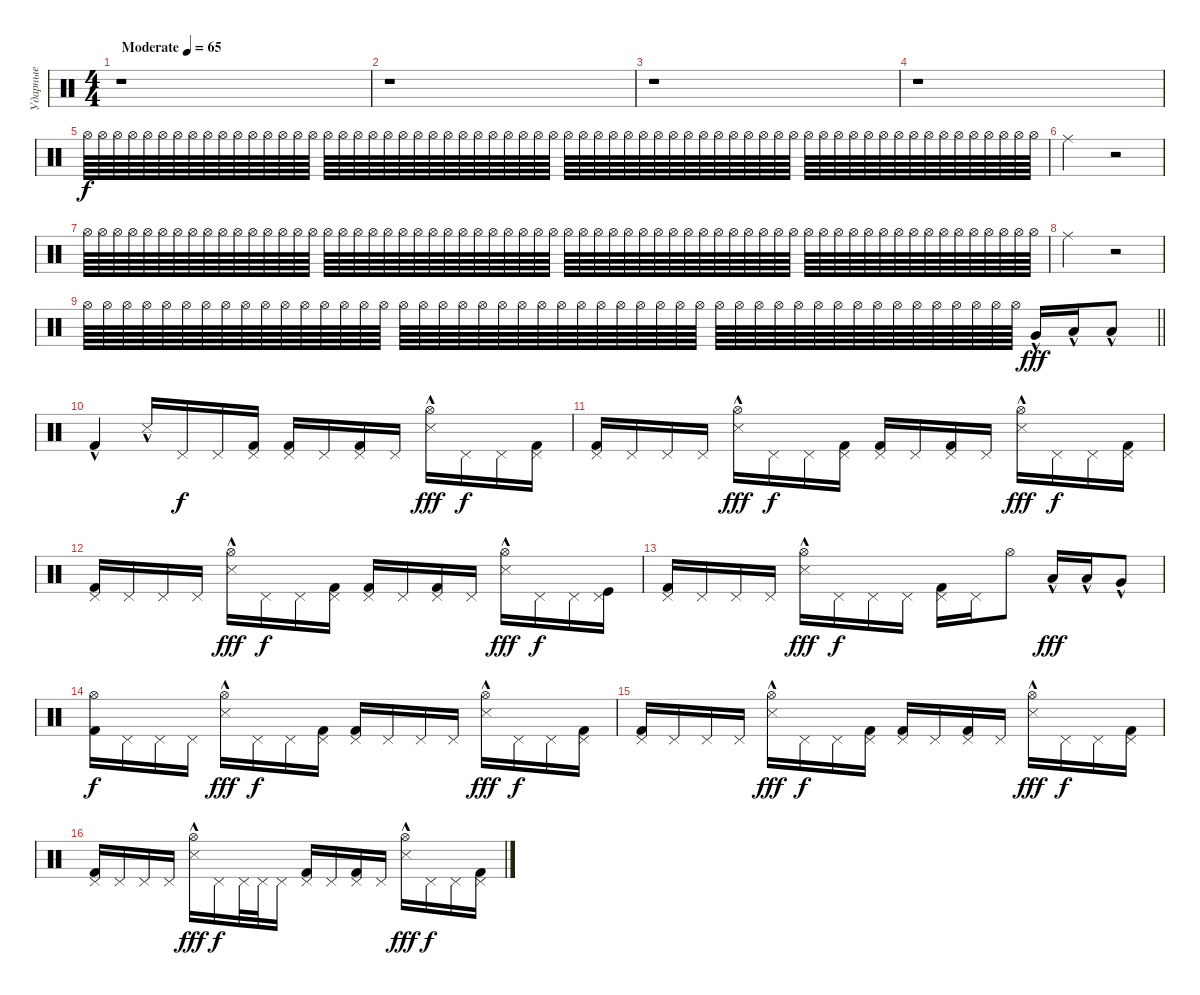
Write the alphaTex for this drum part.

\track ("Ударные" "Ударные") {instrument percussion}
\staff {score}
\articulation defaults
\ts (4 4)
\tempo (65 "Moderate")
\clef neutral
\ks c
r.1{dy f volume 4} |
r.1 |
r.1 |
r.1 |
"Hi-Hat (open)".64{volume 10} "Hi-Hat (open)".64 "Hi-Hat (open)".64 "Hi-Hat (open)".64 "Hi-Hat (open)".64 "Hi-Hat (open)".64 "Hi-Hat (open)".64 "Hi-Hat (open)".64 "Hi-Hat (open)".64 "Hi-Hat (open)".64 "Hi-Hat (open)".64 "Hi-Hat (open)".64 "Hi-Hat (open)".64 "Hi-Hat (open)".64 "Hi-Hat (open)".64 "Hi-Hat (open)".64 "Hi-Hat (open)".64 "Hi-Hat (open)".64 "Hi-Hat (open)".64 "Hi-Hat (open)".64 "Hi-Hat (open)".64 "Hi-Hat (open)".64 "Hi-Hat (open)".64 "Hi-Hat (open)".64 "Hi-Hat (open)".64 "Hi-Hat (open)".64 "Hi-Hat (open)".64 "Hi-Hat (open)".64 "Hi-Hat (open)".64 "Hi-Hat (open)".64 "Hi-Hat (open)".64 "Hi-Hat (open)".64 "Hi-Hat (open)".64{volume 5} "Hi-Hat (open)".64 "Hi-Hat (open)".64 "Hi-Hat (open)".64 "Hi-Hat (open)".64 "Hi-Hat (open)".64 "Hi-Hat (open)".64 "Hi-Hat (open)".64 "Hi-Hat (open)".64 "Hi-Hat (open)".64 "Hi-Hat (open)".64 "Hi-Hat (open)".64 "Hi-Hat (open)".64 "Hi-Hat (open)".64 "Hi-Hat (open)".64 "Hi-Hat (open)".64 "Hi-Hat (open)".64 "Hi-Hat (open)".64 "Hi-Hat (open)".64 "Hi-Hat (open)".64 "Hi-Hat (open)".64 "Hi-Hat (open)".64 "Hi-Hat (open)".64 "Hi-Hat (open)".64 "Hi-Hat (open)".64 "Hi-Hat (open)".64 "Hi-Hat (open)".64 "Hi-Hat (open)".64 "Hi-Hat (open)".64 "Hi-Hat (open)".64 "Hi-Hat (open)".64 "Hi-Hat (open)".64 |
"Ride (middle)".2{volume 11} r.2{volume 0} |
"Hi-Hat (open)".64{volume 10} "Hi-Hat (open)".64 "Hi-Hat (open)".64 "Hi-Hat (open)".64 "Hi-Hat (open)".64 "Hi-Hat (open)".64 "Hi-Hat (open)".64 "Hi-Hat (open)".64 "Hi-Hat (open)".64 "Hi-Hat (open)".64 "Hi-Hat (open)".64 "Hi-Hat (open)".64 "Hi-Hat (open)".64 "Hi-Hat (open)".64 "Hi-Hat (open)".64 "Hi-Hat (open)".64 "Hi-Hat (open)".64 "Hi-Hat (open)".64 "Hi-Hat (open)".64 "Hi-Hat (open)".64 "Hi-Hat (open)".64 "Hi-Hat (open)".64 "Hi-Hat (open)".64 "Hi-Hat (open)".64 "Hi-Hat (open)".64 "Hi-Hat (open)".64 "Hi-Hat (open)".64 "Hi-Hat (open)".64 "Hi-Hat (open)".64 "Hi-Hat (open)".64 "Hi-Hat (open)".64 "Hi-Hat (open)".64 "Hi-Hat (open)".64{volume 5} "Hi-Hat (open)".64 "Hi-Hat (open)".64 "Hi-Hat (open)".64 "Hi-Hat (open)".64 "Hi-Hat (open)".64 "Hi-Hat (open)".64 "Hi-Hat (open)".64 "Hi-Hat (open)".64 "Hi-Hat (open)".64 "Hi-Hat (open)".64 "Hi-Hat (open)".64 "Hi-Hat (open)".64 "Hi-Hat (open)".64 "Hi-Hat (open)".64 "Hi-Hat (open)".64 "Hi-Hat (open)".64 "Hi-Hat (open)".64 "Hi-Hat (open)".64 "Hi-Hat (open)".64 "Hi-Hat (open)".64 "Hi-Hat (open)".64 "Hi-Hat (open)".64 "Hi-Hat (open)".64 "Hi-Hat (open)".64 "Hi-Hat (open)".64 "Hi-Hat (open)".64 "Hi-Hat (open)".64 "Hi-Hat (open)".64 "Hi-Hat (open)".64 "Hi-Hat (open)".64 "Hi-Hat (open)".64 |
"Ride (middle)".2{volume 11} r.2{volume 0} |
\barLineRight lightlight "Hi-Hat (open)".64{volume 11} "Hi-Hat (open)".64 "Hi-Hat (open)".64 "Hi-Hat (open)".64 "Hi-Hat (open)".64 "Hi-Hat (open)".64 "Hi-Hat (open)".64 "Hi-Hat (open)".64 "Hi-Hat (open)".64 "Hi-Hat (open)".64 "Hi-Hat (open)".64 "Hi-Hat (open)".64 "Hi-Hat (open)".64 "Hi-Hat (open)".64 "Hi-Hat (open)".64 "Hi-Hat (open)".64 "Hi-Hat (open)".64 "Hi-Hat (open)".64 "Hi-Hat (open)".64 "Hi-Hat (open)".64 "Hi-Hat (open)".64 "Hi-Hat (open)".64 "Hi-Hat (open)".64 "Hi-Hat (open)".64 "Hi-Hat (open)".64 "Hi-Hat (open)".64 "Hi-Hat (open)".64 "Hi-Hat (open)".64 "Hi-Hat (open)".64 "Hi-Hat (open)".64 "Hi-Hat (open)".64 "Hi-Hat (open)".64 "Hi-Hat (open)".64 "Hi-Hat (open)".64 "Hi-Hat (open)".64 "Hi-Hat (open)".64 "Hi-Hat (open)".64 "Hi-Hat (open)".64 "Hi-Hat (open)".64 "Hi-Hat (open)".64 "Hi-Hat (open)".64 "Hi-Hat (open)".64 "Hi-Hat (open)".64 "Hi-Hat (open)".64 "Hi-Hat (open)".64 "Hi-Hat (open)".64 "Hi-Hat (open)".64 "Hi-Hat (open)".64 "Very Low Tom (hit)"{hac}.16{dy fff} "Low Floor Tom (hit)"{hac}.16 "Low Floor Tom (hit)"{hac}.8
|
"Kick (hit) 2"{hac}.4 "Snare (side stick) 3"{hac}.16 "Pedal Hi-Hat (hit)".16{dy f} "Pedal Hi-Hat (hit)".16 ("Kick (hit) 2" "Pedal Hi-Hat (hit)").16 ("Kick (hit) 2" "Pedal Hi-Hat (hit)").16 "Pedal Hi-Hat (hit)".16 ("Kick (hit) 2" "Pedal Hi-Hat (hit)").16 "Pedal Hi-Hat (hit)".16 ("Snare (side stick) 3"{hac} "Hi-Hat (open)").16{dy fff} "Pedal Hi-Hat (hit)".16{dy f} "Pedal Hi-Hat (hit)".16 ("Kick (hit) 2" "Pedal Hi-Hat (hit)").16 |
("Kick (hit) 2" "Pedal Hi-Hat (hit)").16 "Pedal Hi-Hat (hit)".16 "Pedal Hi-Hat (hit)".16 "Pedal Hi-Hat (hit)".16 ("Snare (side stick) 3"{hac} "Hi-Hat (open)").16{dy fff} "Pedal Hi-Hat (hit)".16{dy f} "Pedal Hi-Hat (hit)".16 ("Kick (hit) 2" "Pedal Hi-Hat (hit)").16 ("Kick (hit) 2" "Pedal Hi-Hat (hit)").16 "Pedal Hi-Hat (hit)".16 ("Kick (hit) 2" "Pedal Hi-Hat (hit)").16 "Pedal Hi-Hat (hit)".16 ("Snare (side stick) 3"{hac} "Hi-Hat (open)").16{dy fff} "Pedal Hi-Hat (hit)".16{dy f} "Pedal Hi-Hat (hit)".16 ("Kick (hit) 2" "Pedal Hi-Hat (hit)").16 |
("Kick (hit) 2" "Pedal Hi-Hat (hit)").16 "Pedal Hi-Hat (hit)".16 "Pedal Hi-Hat (hit)".16 "Pedal Hi-Hat (hit)".16 ("Snare (side stick) 3"{hac} "Hi-Hat (open)").16{dy fff} "Pedal Hi-Hat (hit)".16{dy f} "Pedal Hi-Hat (hit)".16 ("Kick (hit) 2" "Pedal Hi-Hat (hit)").16 ("Kick (hit) 2" "Pedal Hi-Hat (hit)").16 "Pedal Hi-Hat (hit)".16 ("Kick (hit) 2" "Pedal Hi-Hat (hit)").16 "Pedal Hi-Hat (hit)".16 ("Snare (side stick) 3"{hac} "Hi-Hat (open)").16{dy fff} "Pedal Hi-Hat (hit)".16{dy f} "Pedal Hi-Hat (hit)".16 ("Kick (hit)" "Pedal Hi-Hat (hit)").16 |
("Kick (hit) 2" "Pedal Hi-Hat (hit)").16 "Pedal Hi-Hat (hit)".16 "Pedal Hi-Hat (hit)".16 "Pedal Hi-Hat (hit)".16 ("Snare (side stick) 3"{hac} "Hi-Hat (open)").16{dy fff} "Pedal Hi-Hat (hit)".16{dy f} "Pedal Hi-Hat (hit)".16 "Pedal Hi-Hat (hit)".16 ("Kick (hit) 2" "Pedal Hi-Hat (hit)").16 "Pedal Hi-Hat (hit)".16 "Hi-Hat (open)".8 "Low Tom (hit)"{hac}.16{dy fff} "Low Tom (hit)"{hac}.16 "Very Low Tom (hit)"{hac}.8 |
("Kick (hit) 2" "Hi-Hat (open)").16{dy f} "Pedal Hi-Hat (hit)".16 "Pedal Hi-Hat (hit)".16 "Pedal Hi-Hat (hit)".16 ("Snare (side stick) 3"{hac} "Hi-Hat (open)").16{dy fff} "Pedal Hi-Hat (hit)".16{dy f} "Pedal Hi-Hat (hit)".16 ("Kick (hit) 2" "Pedal Hi-Hat (hit)").16 ("Kick (hit) 2" "Pedal Hi-Hat (hit)").16 "Pedal Hi-Hat (hit)".16 "Pedal Hi-Hat (hit)".16 "Pedal Hi-Hat (hit)".16 ("Snare (side stick) 3"{hac} "Hi-Hat (open)").16{dy fff} "Pedal Hi-Hat (hit)".16{dy f} "Pedal Hi-Hat (hit)".16 ("Kick (hit) 2" "Pedal Hi-Hat (hit)").16 |
("Kick (hit) 2" "Pedal Hi-Hat (hit)").16 "Pedal Hi-Hat (hit)".16 "Pedal Hi-Hat (hit)".16 "Pedal Hi-Hat (hit)".16 ("Snare (side stick) 3"{hac} "Hi-Hat (open)").16{dy fff} "Pedal Hi-Hat (hit)".16{dy f} "Pedal Hi-Hat (hit)".16 ("Kick (hit) 2" "Pedal Hi-Hat (hit)").16 ("Kick (hit) 2" "Pedal Hi-Hat (hit)").16 "Pedal Hi-Hat (hit)".16 ("Kick (hit) 2" "Pedal Hi-Hat (hit)").16 "Pedal Hi-Hat (hit)".16 ("Snare (side stick) 3"{hac} "Hi-Hat (open)").16{dy fff} "Pedal Hi-Hat (hit)".16{dy f} "Pedal Hi-Hat (hit)".16 ("Kick (hit) 2" "Pedal Hi-Hat (hit)").16 |
("Kick (hit) 2" "Pedal Hi-Hat (hit)").16 "Pedal Hi-Hat (hit)".16 "Pedal Hi-Hat (hit)".16 "Pedal Hi-Hat (hit)".16 ("Snare (side stick) 3"{hac} "Hi-Hat (open)").16{dy fff} "Pedal Hi-Hat (hit)".16{dy f} "Pedal Hi-Hat (hit)".32 "Pedal Hi-Hat (hit)".32 "Pedal Hi-Hat (hit)".16 ("Kick (hit) 2" "Pedal Hi-Hat (hit)").16 "Pedal Hi-Hat (hit)".16 ("Kick (hit) 2" "Pedal Hi-Hat (hit)").16 "Pedal Hi-Hat (hit)".16 ("Snare (side stick) 3"{hac} "Hi-Hat (open)").16{dy fff} "Pedal Hi-Hat (hit)".16{dy f} "Pedal Hi-Hat (hit)".16 ("Kick (hit) 2" "Pedal Hi-Hat (hit)").16
